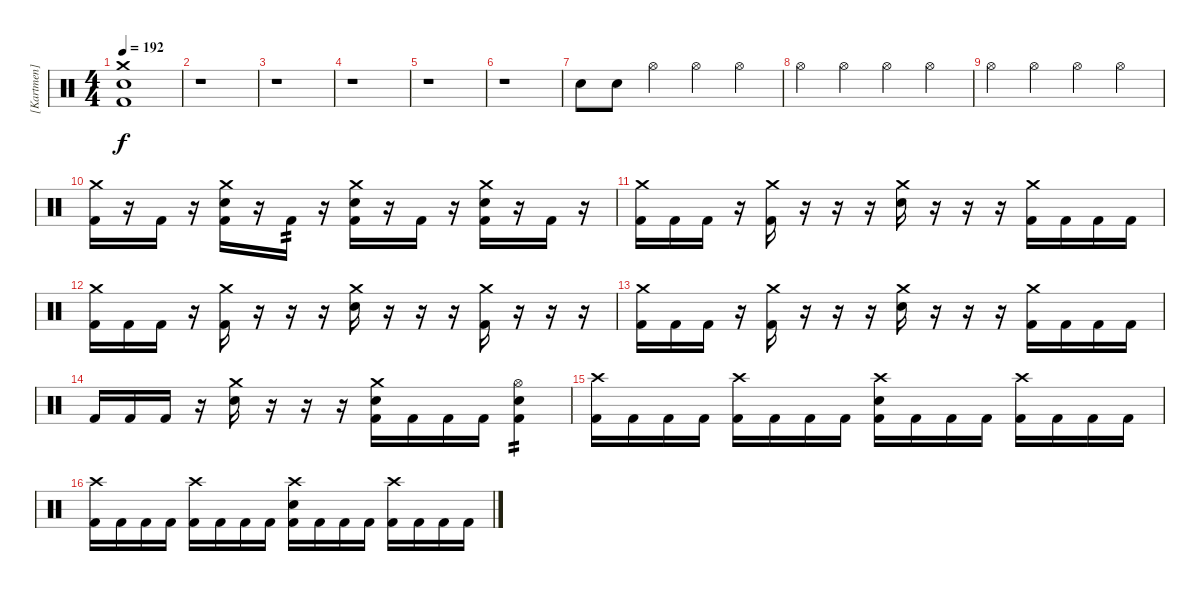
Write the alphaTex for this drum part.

\track ("[Kartmen] - Drums" "[Kartmen] ") {instrument percussion}
\staff {score}
\articulation defaults
\ts (4 4)
\tempo 192
\clef neutral
\ks c
("Crash medium (hit)" "Snare (hit) 2" "Kick (hit) 2").1{dy f} |
r.1 |
r.1 |
r.1 |
r.1 |
r.1 |
"Snare (hit) 2".8 "Snare (hit) 2".8 "Hi-Hat (open)".4 "Hi-Hat (open)".4 "Hi-Hat (open)".4 |
"Hi-Hat (open)".4 "Hi-Hat (open)".4 "Hi-Hat (open)".4 "Hi-Hat (open)".4 |
"Hi-Hat (open)".4 "Hi-Hat (open)".4 "Hi-Hat (open)".4 "Hi-Hat (open)".4 |
("Crash medium (hit)" "Kick (hit) 2").16 r.16 "Kick (hit) 2".16 r.16 ("Crash medium (hit)" "Kick (hit) 2" "Snare (hit) 2").16 r.16 "Kick (hit) 2".16{tp 2} r.16 ("Crash medium (hit)" "Kick (hit) 2" "Snare (hit) 2").16 r.16 "Kick (hit) 2".16 r.16 ("Crash medium (hit)" "Kick (hit) 2" "Snare (hit) 2").16 r.16 "Kick (hit) 2".16 r.16 |
("Crash medium (hit)" "Kick (hit) 2").16 "Kick (hit) 2".16 "Kick (hit) 2".16 r.16 ("Crash medium (hit)" "Kick (hit) 2").16 r.16 r.16 r.16 ("Crash medium (hit)" "Snare (hit) 2").16 r.16 r.16 r.16 ("Crash medium (hit)" "Kick (hit) 2").16 "Kick (hit) 2".16 "Kick (hit) 2".16 "Kick (hit) 2".16 |
("Crash medium (hit)" "Kick (hit) 2").16 "Kick (hit) 2".16 "Kick (hit) 2".16 r.16 ("Crash medium (hit)" "Kick (hit) 2").16 r.16 r.16 r.16 ("Crash medium (hit)" "Snare (hit) 2").16 r.16 r.16 r.16 ("Crash medium (hit)" "Kick (hit) 2").16 r.16 r.16 r.16 |
("Crash medium (hit)" "Kick (hit) 2").16 "Kick (hit) 2".16 "Kick (hit) 2".16 r.16 ("Crash medium (hit)" "Kick (hit) 2").16 r.16 r.16 r.16 ("Crash medium (hit)" "Snare (hit) 2").16 r.16 r.16 r.16 ("Crash medium (hit)" "Kick (hit) 2").16 "Kick (hit) 2".16 "Kick (hit) 2".16 "Kick (hit) 2".16 |
"Kick (hit) 2".16 "Kick (hit) 2".16 "Kick (hit) 2".16 r.16 ("Crash medium (hit)" "Snare (hit) 2").16 r.16 r.16 r.16 ("Crash medium (hit)" "Snare (hit) 2" "Kick (hit) 2").16 "Kick (hit) 2".16 "Kick (hit) 2".16 "Kick (hit) 2".16 ("Hi-Hat (open)" "Snare (hit) 2" "Kick (hit) 2").4{tp 2} |
("Crash high (hit)" "Kick (hit) 2").16 "Kick (hit) 2".16 "Kick (hit) 2".16 "Kick (hit) 2".16 ("Crash high (hit)" "Kick (hit) 2").16 "Kick (hit) 2".16 "Kick (hit) 2".16 "Kick (hit) 2".16 ("Crash high (hit)" "Snare (hit) 2" "Kick (hit) 2").16 "Kick (hit) 2".16 "Kick (hit) 2".16 "Kick (hit) 2".16 ("Crash high (hit)" "Kick (hit) 2").16 "Kick (hit) 2".16 "Kick (hit) 2".16 "Kick (hit) 2".16 |
("Crash high (hit)" "Kick (hit) 2").16 "Kick (hit) 2".16 "Kick (hit) 2".16 "Kick (hit) 2".16 ("Crash high (hit)" "Kick (hit) 2").16 "Kick (hit) 2".16 "Kick (hit) 2".16 "Kick (hit) 2".16 ("Crash high (hit)" "Snare (hit) 2" "Kick (hit) 2").16 "Kick (hit) 2".16 "Kick (hit) 2".16 "Kick (hit) 2".16 ("Crash high (hit)" "Kick (hit) 2").16 "Kick (hit) 2".16 "Kick (hit) 2".16 "Kick (hit) 2".16
